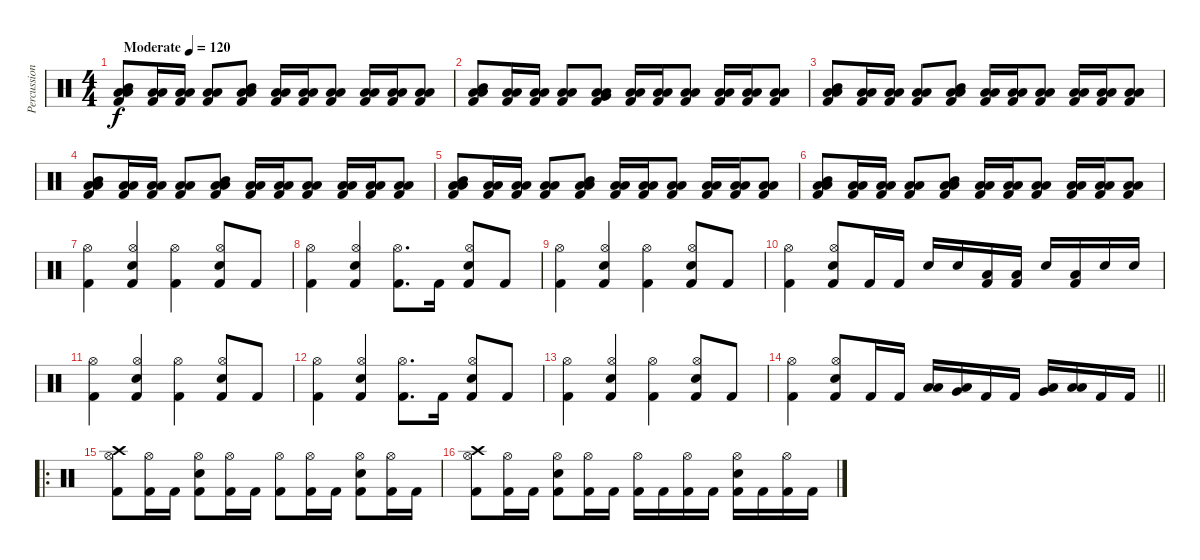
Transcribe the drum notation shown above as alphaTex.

\track ("Percussion" "Percussion") {instrument percussion}
\staff {score}
\articulation defaults
\ts (4 4)
\tempo (120 "Moderate")
\clef neutral
\ks c
("Low Floor Tom (hit)" "Low Tom (hit)" "Mid Tom (hit)" "Kick (hit) 2").8{dy f} ("Low Floor Tom (hit)" "Low Tom (hit)" "Kick (hit) 2").16 ("Low Floor Tom (hit)" "Low Tom (hit)" "Kick (hit) 2").16 ("Low Floor Tom (hit)" "Low Tom (hit)" "Kick (hit) 2").8 ("Low Floor Tom (hit)" "Low Tom (hit)" "Mid Tom (hit)" "Kick (hit) 2").8 ("Low Floor Tom (hit)" "Low Tom (hit)" "Kick (hit) 2").16 ("Low Floor Tom (hit)" "Low Tom (hit)" "Kick (hit) 2").16 ("Low Floor Tom (hit)" "Low Tom (hit)" "Kick (hit) 2").8 ("Low Floor Tom (hit)" "Low Tom (hit)" "Kick (hit) 2").16 ("Low Floor Tom (hit)" "Low Tom (hit)" "Kick (hit) 2").16 ("Low Floor Tom (hit)" "Low Tom (hit)" "Kick (hit) 2").8 |
("Low Floor Tom (hit)" "Low Tom (hit)" "Mid Tom (hit)" "Kick (hit) 2").8 ("Low Floor Tom (hit)" "Low Tom (hit)" "Kick (hit) 2").16 ("Low Floor Tom (hit)" "Low Tom (hit)" "Kick (hit) 2").16 ("Low Floor Tom (hit)" "Low Tom (hit)" "Kick (hit) 2").8 ("Low Floor Tom (hit)" "Low Tom (hit)" "Very Low Tom (hit)" "Kick (hit) 2").8 ("Low Floor Tom (hit)" "Low Tom (hit)" "Kick (hit) 2").16 ("Low Floor Tom (hit)" "Low Tom (hit)" "Kick (hit) 2").16 ("Low Floor Tom (hit)" "Low Tom (hit)" "Kick (hit) 2").8 ("Low Floor Tom (hit)" "Low Tom (hit)" "Kick (hit) 2").16 ("Low Floor Tom (hit)" "Low Tom (hit)" "Kick (hit) 2").16 ("Low Floor Tom (hit)" "Low Tom (hit)" "Kick (hit) 2").8 |
("Low Floor Tom (hit)" "Low Tom (hit)" "Mid Tom (hit)" "Kick (hit) 2").8 ("Low Floor Tom (hit)" "Low Tom (hit)" "Kick (hit) 2").16 ("Low Floor Tom (hit)" "Low Tom (hit)" "Kick (hit) 2").16 ("Low Floor Tom (hit)" "Low Tom (hit)" "Kick (hit) 2").8 ("Low Floor Tom (hit)" "Low Tom (hit)" "Mid Tom (hit)" "Kick (hit) 2").8 ("Low Floor Tom (hit)" "Low Tom (hit)" "Kick (hit) 2").16 ("Low Floor Tom (hit)" "Low Tom (hit)" "Kick (hit) 2").16 ("Low Floor Tom (hit)" "Low Tom (hit)" "Kick (hit) 2").8 ("Low Floor Tom (hit)" "Low Tom (hit)" "Kick (hit) 2").16 ("Low Floor Tom (hit)" "Low Tom (hit)" "Kick (hit) 2").16 ("Low Floor Tom (hit)" "Low Tom (hit)" "Kick (hit) 2").8 |
("Low Floor Tom (hit)" "Low Tom (hit)" "Mid Tom (hit)" "Kick (hit) 2").8 ("Low Floor Tom (hit)" "Low Tom (hit)" "Kick (hit) 2").16 ("Low Floor Tom (hit)" "Low Tom (hit)" "Kick (hit) 2").16 ("Low Floor Tom (hit)" "Low Tom (hit)" "Kick (hit) 2").8 ("Low Floor Tom (hit)" "Low Tom (hit)" "Mid Tom (hit)" "Kick (hit) 2").8 ("Low Floor Tom (hit)" "Low Tom (hit)" "Kick (hit) 2").16 ("Low Floor Tom (hit)" "Low Tom (hit)" "Kick (hit) 2").16 ("Low Floor Tom (hit)" "Low Tom (hit)" "Kick (hit) 2").8 ("Low Floor Tom (hit)" "Low Tom (hit)" "Kick (hit) 2").16 ("Low Floor Tom (hit)" "Low Tom (hit)" "Kick (hit) 2").16 ("Low Floor Tom (hit)" "Low Tom (hit)" "Kick (hit) 2").8 |
("Low Floor Tom (hit)" "Low Tom (hit)" "Mid Tom (hit)" "Kick (hit) 2").8 ("Low Floor Tom (hit)" "Low Tom (hit)" "Kick (hit) 2").16 ("Low Floor Tom (hit)" "Low Tom (hit)" "Kick (hit) 2").16 ("Low Floor Tom (hit)" "Low Tom (hit)" "Kick (hit) 2").8 ("Low Floor Tom (hit)" "Low Tom (hit)" "Mid Tom (hit)" "Kick (hit) 2").8 ("Low Floor Tom (hit)" "Low Tom (hit)" "Kick (hit) 2").16 ("Low Floor Tom (hit)" "Low Tom (hit)" "Kick (hit) 2").16 ("Low Floor Tom (hit)" "Low Tom (hit)" "Kick (hit) 2").8 ("Low Floor Tom (hit)" "Low Tom (hit)" "Kick (hit) 2").16 ("Low Floor Tom (hit)" "Low Tom (hit)" "Kick (hit) 2").16 ("Low Floor Tom (hit)" "Low Tom (hit)" "Kick (hit) 2").8 |
("Low Floor Tom (hit)" "Low Tom (hit)" "Mid Tom (hit)" "Kick (hit) 2").8 ("Low Floor Tom (hit)" "Low Tom (hit)" "Kick (hit) 2").16 ("Low Floor Tom (hit)" "Low Tom (hit)" "Kick (hit) 2").16 ("Low Floor Tom (hit)" "Low Tom (hit)" "Kick (hit) 2").8 ("Low Floor Tom (hit)" "Low Tom (hit)" "Mid Tom (hit)" "Kick (hit) 2").8 ("Low Floor Tom (hit)" "Low Tom (hit)" "Kick (hit) 2").16 ("Low Floor Tom (hit)" "Low Tom (hit)" "Kick (hit) 2").16 ("Low Floor Tom (hit)" "Low Tom (hit)" "Kick (hit) 2").8 ("Low Floor Tom (hit)" "Low Tom (hit)" "Kick (hit) 2").16 ("Low Floor Tom (hit)" "Low Tom (hit)" "Kick (hit) 2").16 ("Low Floor Tom (hit)" "Low Tom (hit)" "Kick (hit) 2").8 |
("Hi-Hat (open)" "Kick (hit) 2").4 ("Hi-Hat (open)" "Snare (hit) 2" "Kick (hit) 2").4 ("Hi-Hat (open)" "Kick (hit) 2").4 ("Hi-Hat (open)" "Snare (hit) 2" "Kick (hit) 2").8 "Kick (hit) 2".8 |
("Hi-Hat (open)" "Kick (hit) 2").4 ("Hi-Hat (open)" "Snare (hit) 2" "Kick (hit) 2").4 ("Hi-Hat (open)" "Kick (hit) 2").8{d} "Kick (hit) 2".16 ("Hi-Hat (open)" "Snare (hit) 2" "Kick (hit) 2").8 "Kick (hit) 2".8 |
("Hi-Hat (open)" "Kick (hit) 2").4 ("Hi-Hat (open)" "Snare (hit) 2" "Kick (hit) 2").4 ("Hi-Hat (open)" "Kick (hit) 2").4 ("Hi-Hat (open)" "Snare (hit) 2" "Kick (hit) 2").8 "Kick (hit) 2".8 |
("Hi-Hat (open)" "Kick (hit) 2").4 ("Hi-Hat (open)" "Snare (hit) 2" "Kick (hit) 2").8 "Kick (hit) 2".16 "Kick (hit) 2".16 "Snare (hit) 2".16 "Snare (hit) 2".16 ("Low Floor Tom (hit)" "Kick (hit) 2").16 ("Low Floor Tom (hit)" "Kick (hit) 2").16 "Snare (hit) 2".16 ("Low Floor Tom (hit)" "Kick (hit) 2").16 "Snare (hit) 2".16 "Snare (hit) 2".16 |
("Hi-Hat (open)" "Kick (hit) 2").4 ("Hi-Hat (open)" "Snare (hit) 2" "Kick (hit) 2").4 ("Hi-Hat (open)" "Kick (hit) 2").4 ("Hi-Hat (open)" "Snare (hit) 2" "Kick (hit) 2").8 "Kick (hit) 2".8 |
("Hi-Hat (open)" "Kick (hit) 2").4 ("Hi-Hat (open)" "Snare (hit) 2" "Kick (hit) 2").4 ("Hi-Hat (open)" "Kick (hit) 2").8{d} "Kick (hit) 2".16 ("Hi-Hat (open)" "Snare (hit) 2" "Kick (hit) 2").8 "Kick (hit) 2".8 |
("Hi-Hat (open)" "Kick (hit) 2").4 ("Hi-Hat (open)" "Snare (hit) 2" "Kick (hit) 2").4 ("Hi-Hat (open)" "Kick (hit) 2").4 ("Hi-Hat (open)" "Snare (hit) 2" "Kick (hit) 2").8 "Kick (hit) 2".8 |
\barLineRight lightlight
("Hi-Hat (open)" "Kick (hit) 2").4 ("Hi-Hat (open)" "Snare (hit) 2" "Kick (hit) 2").8 "Kick (hit) 2".16 "Kick (hit) 2".16 ("Low Floor Tom (hit)" "Low Tom (hit)").16 ("Low Floor Tom (hit)" "Very Low Tom (hit)").16 "Kick (hit) 2".16 "Kick (hit) 2".16 ("Low Floor Tom (hit)" "Very Low Tom (hit)").16 ("Low Floor Tom (hit)" "Low Floor Tom (hit)").16 "Kick (hit) 2".16 "Kick (hit) 2".16 |
\ro
("Hi-Hat (open)" "Kick (hit) 2" "Crash high (hit)").8 ("Hi-Hat (open)" "Kick (hit) 2").16 "Kick (hit) 2".16 ("Hi-Hat (open)" "Snare (hit) 2" "Kick (hit) 2").8 ("Hi-Hat (open)" "Kick (hit) 2").16 "Kick (hit) 2".16 ("Hi-Hat (open)" "Kick (hit) 2").8 ("Hi-Hat (open)" "Kick (hit) 2").16 "Kick (hit) 2".16 ("Hi-Hat (open)" "Snare (hit) 2" "Kick (hit) 2").8 ("Hi-Hat (open)" "Kick (hit) 2").16 "Kick (hit) 2".16 |
("Hi-Hat (open)" "Kick (hit) 2" "Crash high (hit)").8 ("Hi-Hat (open)" "Kick (hit) 2").16 "Kick (hit) 2".16 ("Hi-Hat (open)" "Snare (hit) 2" "Kick (hit) 2").8 ("Hi-Hat (open)" "Kick (hit) 2").16 "Kick (hit) 2".16 ("Hi-Hat (open)" "Kick (hit) 2").16 "Kick (hit) 2".16 ("Hi-Hat (open)" "Kick (hit) 2").16 "Kick (hit) 2".16 ("Hi-Hat (open)" "Snare (hit) 2" "Kick (hit) 2").16 "Kick (hit) 2".16 ("Hi-Hat (open)" "Kick (hit) 2").16 "Kick (hit) 2".16
